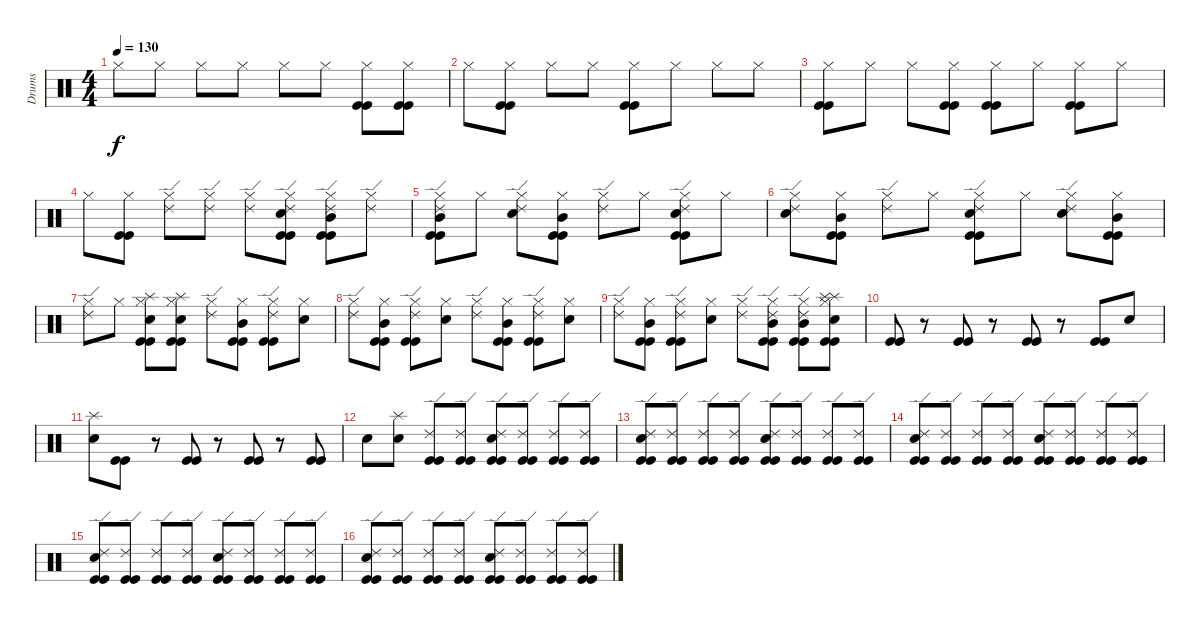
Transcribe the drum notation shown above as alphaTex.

\track ("Drums" "Drums") {instrument percussion}
\staff {score}
\articulation defaults
\ts (4 4)
\tempo 130
\clef neutral
\ks c "Hi-Hat (closed)".8{dy f} "Hi-Hat (closed)".8 "Hi-Hat (closed)".8 "Hi-Hat (closed)".8 "Hi-Hat (closed)".8 "Hi-Hat (closed)".8
("Kick (hit)" "Hi-Hat (closed)" "Kick (hit)").8 ("Kick (hit)" "Hi-Hat (closed)" "Kick (hit)").8 |
"Hi-Hat (closed)".8 ("Kick (hit)" "Hi-Hat (closed)" "Kick (hit)").8 "Hi-Hat (closed)".8 "Hi-Hat (closed)".8 ("Kick (hit)" "Hi-Hat (closed)" "Kick (hit)").8 "Hi-Hat (closed)".8 "Hi-Hat (closed)".8 "Hi-Hat (closed)".8 |
("Kick (hit)" "Hi-Hat (closed)" "Kick (hit)").8 "Hi-Hat (closed)".8 "Hi-Hat (closed)".8 ("Kick (hit)" "Hi-Hat (closed)" "Kick (hit)").8 ("Kick (hit)" "Hi-Hat (closed)" "Kick (hit)").8 "Hi-Hat (closed)".8 ("Kick (hit)" "Hi-Hat (closed)" "Kick (hit)").8 "Hi-Hat (closed)".8 |
"Hi-Hat (closed)".8 ("Kick (hit)" "Hi-Hat (closed)" "Kick (hit)").8 ("Ride (edge) 2" "Hi-Hat (closed)").8 ("Ride (edge) 2" "Hi-Hat (closed)").8 ("Ride (edge) 2" "Hi-Hat (closed)").8 ("Ride (edge) 2" "Snare (hit) 2" "Kick (hit)" "Hi-Hat (closed)" "Kick (hit)").8 ("Ride (edge) 2" "Mid Tom (hit)" "Kick (hit)" "Hi-Hat (closed)" "Kick (hit)").8 ("Ride (edge) 2" "Hi-Hat (closed)").8 |
("Ride (edge) 2" "Mid Tom (hit)" "Kick (hit)" "Hi-Hat (closed)" "Kick (hit)").8 "Hi-Hat (closed)".8 ("Ride (edge) 2" "Snare (hit) 2" "Hi-Hat (closed)").8 ("Mid Tom (hit)" "Kick (hit)" "Hi-Hat (closed)" "Kick (hit)").8 ("Ride (edge) 2" "Hi-Hat (closed)").8 "Hi-Hat (closed)".8 ("Ride (edge) 2" "Snare (hit) 2" "Kick (hit)" "Hi-Hat (closed)" "Kick (hit)").8 "Hi-Hat (closed)".8 |
("Ride (edge) 2" "Snare (hit) 2" "Hi-Hat (closed)").8 ("Mid Tom (hit)" "Kick (hit)" "Hi-Hat (closed)" "Kick (hit)").8 ("Ride (edge) 2" "Hi-Hat (closed)").8 "Hi-Hat (closed)".8 ("Ride (edge) 2" "Snare (hit) 2" "Kick (hit)" "Hi-Hat (closed)" "Kick (hit)").8 "Hi-Hat (closed)".8 ("Ride (edge) 2" "Snare (hit) 2" "Hi-Hat (closed)").8 ("Mid Tom (hit)" "Kick (hit)" "Hi-Hat (closed)" "Kick (hit)").8 |
("Ride (edge) 2" "Hi-Hat (closed)").8 "Hi-Hat (closed)".8 ("Splash (hit)" "Snare (hit) 2" "Kick (hit)" "Hi-Hat (closed)" "Kick (hit)").8 ("Splash (hit)" "Snare (hit) 2" "Kick (hit)" "Hi-Hat (closed)" "Kick (hit)").8 ("Ride (edge) 2" "Hi-Hat (closed)").8 ("Mid Tom (hit)" "Kick (hit)" "Hi-Hat (closed)" "Kick (hit)").8 ("Ride (edge) 2" "Kick (hit)" "Hi-Hat (closed)" "Kick (hit)").8 ("Snare (hit) 2" "Hi-Hat (closed)").8 |
("Ride (edge) 2" "Hi-Hat (closed)").8 ("Mid Tom (hit)" "Kick (hit)" "Hi-Hat (closed)" "Kick (hit)").8 ("Ride (edge) 2" "Kick (hit)" "Hi-Hat (closed)" "Kick (hit)").8 ("Snare (hit) 2" "Hi-Hat (closed)").8 ("Ride (edge) 2" "Hi-Hat (closed)").8 ("Mid Tom (hit)" "Kick (hit)" "Hi-Hat (closed)" "Kick (hit)").8 ("Ride (edge) 2" "Kick (hit)" "Hi-Hat (closed)" "Kick (hit)").8 ("Snare (hit) 2" "Hi-Hat (closed)").8 |
("Ride (edge) 2" "Hi-Hat (closed)").8 ("Mid Tom (hit)" "Kick (hit)" "Hi-Hat (closed)" "Kick (hit)").8 ("Ride (edge) 2" "Kick (hit)" "Hi-Hat (closed)" "Kick (hit)").8 ("Snare (hit) 2" "Hi-Hat (closed)").8 ("Ride (edge) 2" "Hi-Hat (closed)").8 ("Ride (edge) 2" "Mid Tom (hit)" "Kick (hit)" "Hi-Hat (closed)" "Kick (hit)").8 ("Ride (edge) 2" "Mid Tom (hit)" "Kick (hit)" "Hi-Hat (closed)" "Kick (hit)").8 ("Splash (hit)" "Splash (hit)" "Snare (hit) 2" "Kick (hit)" "Hi-Hat (closed)" "Kick (hit)").8 |
("Kick (hit)" "Kick (hit)").8 r.8 ("Kick (hit)" "Kick (hit)").8 r.8 ("Kick (hit)" "Kick (hit)").8 r.8 ("Kick (hit)" "Kick (hit)").8 "Snare (hit) 2".8 |
("Splash (hit)" "Snare (hit) 2").8 ("Kick (hit)" "Kick (hit)").8 r.8 ("Kick (hit)" "Kick (hit)").8 r.8 ("Kick (hit)" "Kick (hit)").8 r.8 ("Kick (hit)" "Kick (hit)").8 |
"Snare (hit) 2".8 ("Splash (hit)" "Snare (hit) 2").8 ("Ride (edge) 2" "Kick (hit)" "Kick (hit)").8 ("Ride (edge) 2" "Kick (hit)" "Kick (hit)").8 ("Ride (edge) 2" "Snare (hit) 2" "Kick (hit)" "Kick (hit)").8 ("Ride (edge) 2" "Kick (hit)" "Kick (hit)").8 ("Ride (edge) 2" "Kick (hit)" "Kick (hit)").8 ("Ride (edge) 2" "Kick (hit)" "Kick (hit)").8 |
("Ride (edge) 2" "Snare (hit) 2" "Kick (hit)" "Kick (hit)").8 ("Ride (edge) 2" "Kick (hit)" "Kick (hit)").8 ("Ride (edge) 2" "Kick (hit)" "Kick (hit)").8 ("Ride (edge) 2" "Kick (hit)" "Kick (hit)").8 ("Ride (edge) 2" "Snare (hit) 2" "Kick (hit)" "Kick (hit)").8 ("Ride (edge) 2" "Kick (hit)" "Kick (hit)").8 ("Ride (edge) 2" "Kick (hit)" "Kick (hit)").8 ("Ride (edge) 2" "Kick (hit)" "Kick (hit)").8 |
("Ride (edge) 2" "Snare (hit) 2" "Kick (hit)" "Kick (hit)").8 ("Ride (edge) 2" "Kick (hit)" "Kick (hit)").8 ("Ride (edge) 2" "Kick (hit)" "Kick (hit)").8 ("Ride (edge) 2" "Kick (hit)" "Kick (hit)").8 ("Ride (edge) 2" "Snare (hit) 2" "Kick (hit)" "Kick (hit)").8 ("Ride (edge) 2" "Kick (hit)" "Kick (hit)").8 ("Ride (edge) 2" "Kick (hit)" "Kick (hit)").8 ("Ride (edge) 2" "Kick (hit)" "Kick (hit)").8 |
("Ride (edge) 2" "Snare (hit) 2" "Kick (hit)" "Kick (hit)").8 ("Ride (edge) 2" "Kick (hit)" "Kick (hit)").8 ("Ride (edge) 2" "Kick (hit)" "Kick (hit)").8 ("Ride (edge) 2" "Kick (hit)" "Kick (hit)").8 ("Ride (edge) 2" "Snare (hit) 2" "Kick (hit)" "Kick (hit)").8 ("Ride (edge) 2" "Kick (hit)" "Kick (hit)").8 ("Ride (edge) 2" "Kick (hit)" "Kick (hit)").8 ("Ride (edge) 2" "Kick (hit)" "Kick (hit)").8 |
("Ride (edge) 2" "Snare (hit) 2" "Kick (hit)" "Kick (hit)").8 ("Ride (edge) 2" "Kick (hit)" "Kick (hit)").8 ("Ride (edge) 2" "Kick (hit)" "Kick (hit)").8 ("Ride (edge) 2" "Kick (hit)" "Kick (hit)").8 ("Ride (edge) 2" "Snare (hit) 2" "Kick (hit)" "Kick (hit)").8 ("Ride (edge) 2" "Kick (hit)" "Kick (hit)").8 ("Ride (edge) 2" "Kick (hit)" "Kick (hit)").8 ("Ride (edge) 2" "Kick (hit)" "Kick (hit)").8
